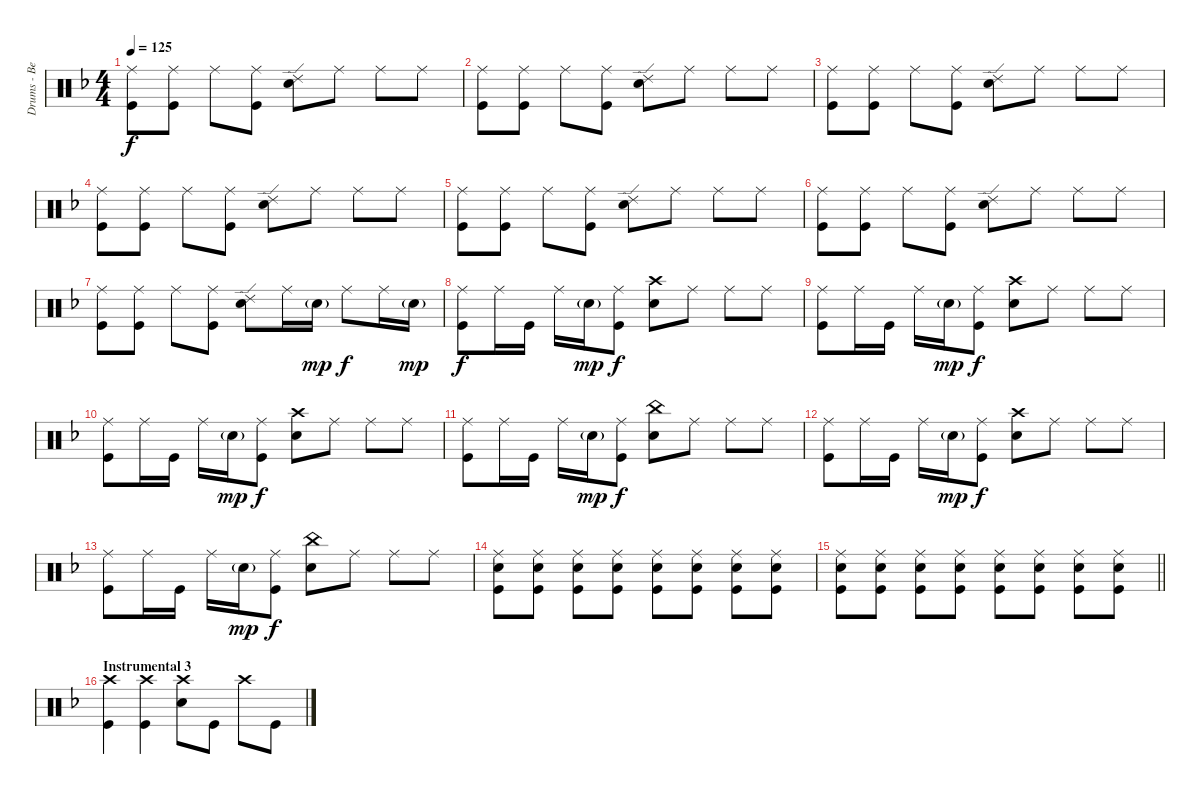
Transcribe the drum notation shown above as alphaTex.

\track ("Drums - Ben Johnston" "Drums - Be") {instrument percussion}
\staff {score}
\articulation defaults
\ts (4 4)
\tempo 125
\clef neutral
\ks dminor
("Ride (middle)" "Kick (hit)").8{dy f} ("Ride (middle)" "Kick (hit)").8 "Ride (middle)".8 ("Ride (middle)" "Kick (hit)").8 ("Ride (edge) 2" "Snare (hit) 2").8 "Ride (middle)".8 "Ride (middle)".8 "Ride (middle)".8 |
("Ride (middle)" "Kick (hit)").8 ("Ride (middle)" "Kick (hit)").8 "Ride (middle)".8 ("Ride (middle)" "Kick (hit)").8 ("Ride (edge) 2" "Snare (hit) 2").8 "Ride (middle)".8 "Ride (middle)".8 "Ride (middle)".8 |
("Ride (middle)" "Kick (hit)").8 ("Ride (middle)" "Kick (hit)").8 "Ride (middle)".8 ("Ride (middle)" "Kick (hit)").8 ("Ride (edge) 2" "Snare (hit) 2").8 "Ride (middle)".8 "Ride (middle)".8 "Ride (middle)".8 |
("Ride (middle)" "Kick (hit)").8 ("Ride (middle)" "Kick (hit)").8 "Ride (middle)".8 ("Ride (middle)" "Kick (hit)").8 ("Ride (edge) 2" "Snare (hit) 2").8 "Ride (middle)".8 "Ride (middle)".8 "Ride (middle)".8 |
("Ride (middle)" "Kick (hit)").8 ("Ride (middle)" "Kick (hit)").8 "Ride (middle)".8 ("Ride (middle)" "Kick (hit)").8 ("Ride (edge) 2" "Snare (hit) 2").8 "Ride (middle)".8 "Ride (middle)".8 "Ride (middle)".8 |
("Ride (middle)" "Kick (hit)").8 ("Ride (middle)" "Kick (hit)").8 "Ride (middle)".8 ("Ride (middle)" "Kick (hit)").8 ("Ride (edge) 2" "Snare (hit) 2").8 "Ride (middle)".8 "Ride (middle)".8 "Ride (middle)".8 |
("Ride (middle)" "Kick (hit)").8 ("Ride (middle)" "Kick (hit)").8 "Ride (middle)".8 ("Ride (middle)" "Kick (hit)").8 ("Ride (edge) 2" "Snare (hit) 2").8 "Ride (middle)".16 "Snare (hit) 2"{g}.16{dy mp} "Ride (middle)".8{dy f} "Ride (middle)".16 "Snare (hit) 2"{g}.16{dy mp} |
("Ride (middle)" "Kick (hit)").8{dy f} "Ride (middle)".16 "Kick (hit)".16 "Ride (middle)".16 "Snare (hit) 2"{g}.16{dy mp} ("Ride (middle)" "Kick (hit)").8{dy f} ("Crash high (hit)" "Snare (hit) 2").8 "Ride (middle)".8 "Ride (middle)".8 "Ride (middle)".8 |
("Ride (middle)" "Kick (hit)").8 "Ride (middle)".16 "Kick (hit)".16 "Ride (middle)".16 "Snare (hit) 2"{g}.16{dy mp} ("Ride (middle)" "Kick (hit)").8{dy f} ("Crash high (hit)" "Snare (hit) 2").8 "Ride (middle)".8 "Ride (middle)".8 "Ride (middle)".8 |
("Ride (middle)" "Kick (hit)").8 "Ride (middle)".16 "Kick (hit)".16 "Ride (middle)".16 "Snare (hit) 2"{g}.16{dy mp} ("Ride (middle)" "Kick (hit)").8{dy f} ("Crash high (hit)" "Snare (hit) 2").8 "Ride (middle)".8 "Ride (middle)".8 "Ride (middle)".8 |
("Ride (middle)" "Kick (hit)").8 "Ride (middle)".16 "Kick (hit)".16 "Ride (middle)".16 "Snare (hit) 2"{g}.16{dy mp} ("Ride (middle)" "Kick (hit)").8{dy f} ("China (hit)" "Snare (hit) 2").8 "Ride (middle)".8 "Ride (middle)".8 "Ride (middle)".8 |
("Ride (middle)" "Kick (hit)").8 "Ride (middle)".16 "Kick (hit)".16 "Ride (middle)".16 "Snare (hit) 2"{g}.16{dy mp} ("Ride (middle)" "Kick (hit)").8{dy f} ("Crash high (hit)" "Snare (hit) 2").8 "Ride (middle)".8 "Ride (middle)".8 "Ride (middle)".8 |
("Ride (middle)" "Kick (hit)").8 "Ride (middle)".16 "Kick (hit)".16 "Ride (middle)".16 "Snare (hit) 2"{g}.16{dy mp} ("Ride (middle)" "Kick (hit)").8{dy f} ("China (hit)" "Snare (hit) 2").8 "Ride (middle)".8 "Ride (middle)".8 "Ride (middle)".8 |
("Ride (middle)" "Snare (hit) 2" "Kick (hit)").8{volume 8} ("Ride (middle)" "Snare (hit) 2" "Kick (hit)").8 ("Ride (middle)" "Snare (hit) 2" "Kick (hit)").8{volume 9} ("Ride (middle)" "Snare (hit) 2" "Kick (hit)").8 ("Ride (middle)" "Snare (hit) 2" "Kick (hit)").8{volume 10} ("Ride (middle)" "Snare (hit) 2" "Kick (hit)").8 ("Ride (middle)" "Snare (hit) 2" "Kick (hit)").8{volume 11} ("Ride (middle)" "Snare (hit) 2" "Kick (hit)").8 |
\barLineRight lightlight
("Ride (middle)" "Snare (hit) 2" "Kick (hit)").8{volume 12} ("Ride (middle)" "Snare (hit) 2" "Kick (hit)").8 ("Ride (middle)" "Snare (hit) 2" "Kick (hit)").8{volume 13} ("Ride (middle)" "Snare (hit) 2" "Kick (hit)").8 ("Ride (middle)" "Snare (hit) 2" "Kick (hit)").8{volume 14} ("Ride (middle)" "Snare (hit) 2" "Kick (hit)").8 ("Ride (middle)" "Snare (hit) 2" "Kick (hit)").8 ("Ride (middle)" "Snare (hit) 2" "Kick (hit)").8 |
\section ("" "Instrumental 3")
("Crash high (hit)" "Kick (hit)").4{volume 16} ("Crash high (hit)" "Kick (hit)").4 ("Crash high (hit)" "Snare (hit) 2").8 "Kick (hit)".8 "Crash high (hit)".8 "Kick (hit)".8
